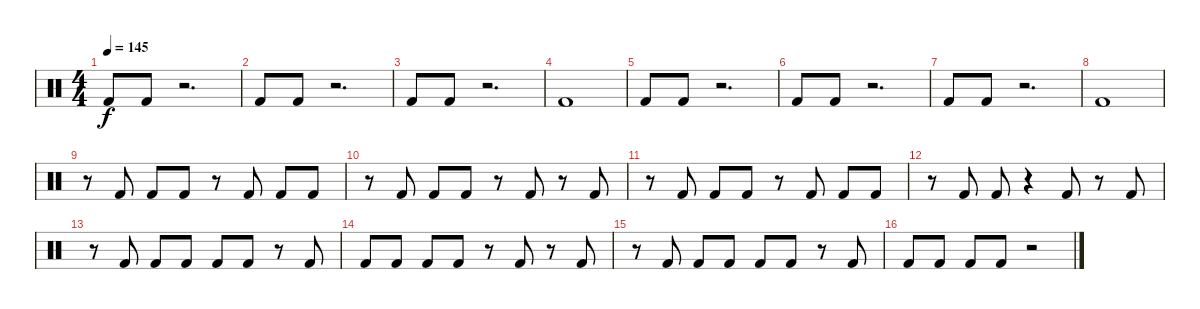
\track "" {instrument percussion}
\staff {score}
\articulation defaults
\ts (4 4)
\tempo 145
\clef neutral
\ks c "Kick (hit) 2".8{dy f} "Kick (hit) 2".8
r.2{d} |
"Kick (hit) 2".8 "Kick (hit) 2".8 r.2{d} |
"Kick (hit) 2".8 "Kick (hit) 2".8 r.2{d} |
"Kick (hit) 2".1 |
"Kick (hit) 2".8 "Kick (hit) 2".8 r.2{d} |
"Kick (hit) 2".8 "Kick (hit) 2".8 r.2{d} |
"Kick (hit) 2".8 "Kick (hit) 2".8 r.2{d} |
"Kick (hit) 2".1 |
r.8 "Kick (hit) 2".8 "Kick (hit) 2".8 "Kick (hit) 2".8 r.8 "Kick (hit) 2".8 "Kick (hit) 2".8 "Kick (hit) 2".8 |
r.8 "Kick (hit) 2".8 "Kick (hit) 2".8 "Kick (hit) 2".8 r.8 "Kick (hit) 2".8 r.8 "Kick (hit) 2".8 |
r.8 "Kick (hit) 2".8 "Kick (hit) 2".8 "Kick (hit) 2".8 r.8 "Kick (hit) 2".8 "Kick (hit) 2".8 "Kick (hit) 2".8 |
r.8 "Kick (hit) 2".8 "Kick (hit) 2".8 r.4 "Kick (hit) 2".8 r.8 "Kick (hit) 2".8 |
r.8 "Kick (hit) 2".8 "Kick (hit) 2".8 "Kick (hit) 2".8 "Kick (hit) 2".8 "Kick (hit) 2".8 r.8 "Kick (hit) 2".8 |
"Kick (hit) 2".8 "Kick (hit) 2".8 "Kick (hit) 2".8 "Kick (hit) 2".8 r.8 "Kick (hit) 2".8 r.8 "Kick (hit) 2".8 |
r.8 "Kick (hit) 2".8 "Kick (hit) 2".8 "Kick (hit) 2".8 "Kick (hit) 2".8 "Kick (hit) 2".8 r.8 "Kick (hit) 2".8 |
"Kick (hit) 2".8 "Kick (hit) 2".8 "Kick (hit) 2".8 "Kick (hit) 2".8 r.2
